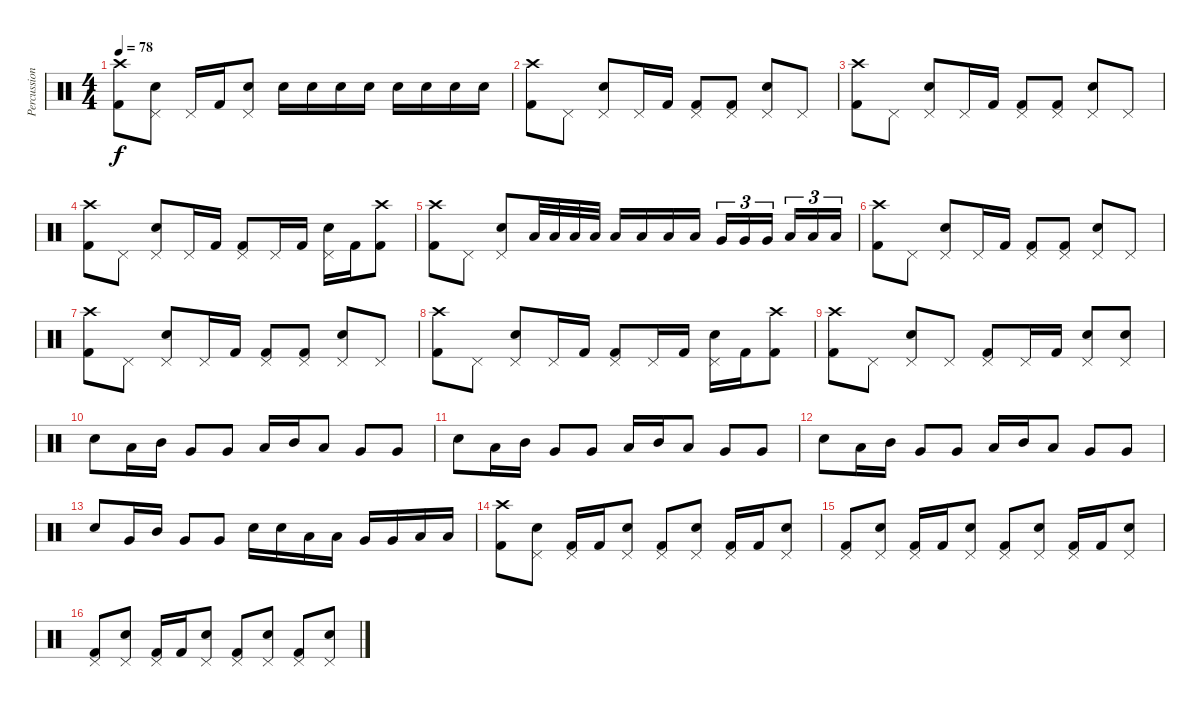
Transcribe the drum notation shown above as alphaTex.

\track ("Percussion" "Percussion") {instrument percussion}
\staff {score}
\articulation defaults
\ts (4 4)
\tempo 78
\clef neutral
\ks c
("Crash high (hit)" "Kick (hit) 2").8{dy f} ("Pedal Hi-Hat (hit)" "Snare (hit) 2").8 "Pedal Hi-Hat (hit)".16 "Kick (hit) 2".16 ("Pedal Hi-Hat (hit)" "Snare (hit) 2").8 "Snare (hit) 2".16 "Snare (hit) 2".16 "Snare (hit) 2".16 "Snare (hit) 2".16 "Snare (hit) 2".16 "Snare (hit) 2".16 "Snare (hit) 2".16 "Snare (hit) 2".16 |
("Crash high (hit)" "Kick (hit) 2").8 "Pedal Hi-Hat (hit)".8 ("Pedal Hi-Hat (hit)" "Snare (hit) 2").8 "Pedal Hi-Hat (hit)".16 "Kick (hit) 2".16 ("Pedal Hi-Hat (hit)" "Kick (hit) 2").8 ("Pedal Hi-Hat (hit)" "Kick (hit) 2").8 ("Pedal Hi-Hat (hit)" "Snare (hit) 2").8 "Pedal Hi-Hat (hit)".8 |
("Crash high (hit)" "Kick (hit) 2").8 "Pedal Hi-Hat (hit)".8 ("Pedal Hi-Hat (hit)" "Snare (hit) 2").8 "Pedal Hi-Hat (hit)".16 "Kick (hit) 2".16 ("Pedal Hi-Hat (hit)" "Kick (hit) 2").8 ("Pedal Hi-Hat (hit)" "Kick (hit) 2").8 ("Pedal Hi-Hat (hit)" "Snare (hit) 2").8 "Pedal Hi-Hat (hit)".8 |
("Crash high (hit)" "Kick (hit) 2").8 "Pedal Hi-Hat (hit)".8 ("Pedal Hi-Hat (hit)" "Snare (hit) 2").8 "Pedal Hi-Hat (hit)".16 "Kick (hit) 2".16 ("Pedal Hi-Hat (hit)" "Kick (hit) 2").8 "Pedal Hi-Hat (hit)".16 "Kick (hit) 2".16 ("Pedal Hi-Hat (hit)" "Snare (hit) 2").16 "Kick (hit) 2".16 ("Crash high (hit)" "Kick (hit) 2").8 |
("Crash high (hit)" "Kick (hit) 2").8 "Pedal Hi-Hat (hit)".8 ("Pedal Hi-Hat (hit)" "Snare (hit) 2").8 "Low Tom (hit)".32 "Low Tom (hit)".32 "Low Tom (hit)".32 "Low Tom (hit)".32 "Low Tom (hit)".16 "Low Tom (hit)".16 "Low Tom (hit)".16 "Low Tom (hit)".16 "Very Low Tom (hit)".16{tu (3 2)} "Very Low Tom (hit)".16{tu (3 2)} "Very Low Tom (hit)".16{tu (3 2)} "Low Floor Tom (hit)".16{tu (3 2)} "Low Floor Tom (hit)".16{tu (3 2)} "Low Floor Tom (hit)".16{tu (3 2)} |
("Crash high (hit)" "Kick (hit) 2").8 "Pedal Hi-Hat (hit)".8 ("Pedal Hi-Hat (hit)" "Snare (hit) 2").8 "Pedal Hi-Hat (hit)".16 "Kick (hit) 2".16 ("Pedal Hi-Hat (hit)" "Kick (hit) 2").8 ("Pedal Hi-Hat (hit)" "Kick (hit) 2").8 ("Pedal Hi-Hat (hit)" "Snare (hit) 2").8 "Pedal Hi-Hat (hit)".8 |
("Crash high (hit)" "Kick (hit) 2").8 "Pedal Hi-Hat (hit)".8 ("Pedal Hi-Hat (hit)" "Snare (hit) 2").8 "Pedal Hi-Hat (hit)".16 "Kick (hit) 2".16 ("Pedal Hi-Hat (hit)" "Kick (hit) 2").8 ("Pedal Hi-Hat (hit)" "Kick (hit) 2").8 ("Pedal Hi-Hat (hit)" "Snare (hit) 2").8 "Pedal Hi-Hat (hit)".8 |
("Crash high (hit)" "Kick (hit) 2").8 "Pedal Hi-Hat (hit)".8 ("Pedal Hi-Hat (hit)" "Snare (hit) 2").8 "Pedal Hi-Hat (hit)".16 "Kick (hit) 2".16 ("Pedal Hi-Hat (hit)" "Kick (hit) 2").8 "Pedal Hi-Hat (hit)".16 "Kick (hit) 2".16 ("Pedal Hi-Hat (hit)" "Snare (hit) 2").16 "Kick (hit) 2".16 ("Crash high (hit)" "Kick (hit) 2").8 |
("Crash high (hit)" "Kick (hit) 2").8 "Pedal Hi-Hat (hit)".8 ("Pedal Hi-Hat (hit)" "Snare (hit) 2").8 "Pedal Hi-Hat (hit)".8 ("Pedal Hi-Hat (hit)" "Kick (hit) 2").8 "Pedal Hi-Hat (hit)".16 "Kick (hit) 2".16 ("Pedal Hi-Hat (hit)" "Snare (hit) 2").8 ("Pedal Hi-Hat (hit)" "Snare (hit) 2").8 |
"Snare (hit) 2".8 "Low Floor Tom (hit)".16 "Mid Tom (hit)".16 "Very Low Tom (hit)".8 "Very Low Tom (hit)".8 "Low Floor Tom (hit)".16 "Mid Tom (hit)".16 "Low Floor Tom (hit)".8 "Very Low Tom (hit)".8 "Very Low Tom (hit)".8 |
"Snare (hit) 2".8 "Low Floor Tom (hit)".16 "Mid Tom (hit)".16 "Very Low Tom (hit)".8 "Very Low Tom (hit)".8 "Low Floor Tom (hit)".16 "Mid Tom (hit)".16 "Low Floor Tom (hit)".8 "Very Low Tom (hit)".8 "Very Low Tom (hit)".8 |
"Snare (hit) 2".8 "Low Floor Tom (hit)".16 "Mid Tom (hit)".16 "Very Low Tom (hit)".8 "Very Low Tom (hit)".8 "Low Floor Tom (hit)".16 "Mid Tom (hit)".16 "Low Floor Tom (hit)".8 "Very Low Tom (hit)".8 "Very Low Tom (hit)".8 |
"Snare (hit) 2".8 "Very Low Tom (hit)".16 "Mid Tom (hit)".16 "Very Low Tom (hit)".8 "Very Low Tom (hit)".8 "Snare (hit) 2".16 "Snare (hit) 2".16 "Low Tom (hit)".16 "Low Tom (hit)".16 "Very Low Tom (hit)".16 "Very Low Tom (hit)".16 "Low Floor Tom (hit)".16 "Low Floor Tom (hit)".16 |
("Crash high (hit)" "Kick (hit) 2").8 ("Pedal Hi-Hat (hit)" "Snare (hit) 2").8 ("Pedal Hi-Hat (hit)" "Kick (hit) 2").16 "Kick (hit) 2".16 ("Pedal Hi-Hat (hit)" "Snare (hit) 2").8 ("Pedal Hi-Hat (hit)" "Kick (hit) 2").8 ("Pedal Hi-Hat (hit)" "Snare (hit) 2").8 ("Pedal Hi-Hat (hit)" "Kick (hit) 2").16 "Kick (hit) 2".16 ("Pedal Hi-Hat (hit)" "Snare (hit) 2").8 |
("Pedal Hi-Hat (hit)" "Kick (hit) 2").8 ("Pedal Hi-Hat (hit)" "Snare (hit) 2").8 ("Pedal Hi-Hat (hit)" "Kick (hit) 2").16 "Kick (hit) 2".16 ("Pedal Hi-Hat (hit)" "Snare (hit) 2").8 ("Pedal Hi-Hat (hit)" "Kick (hit) 2").8 ("Pedal Hi-Hat (hit)" "Snare (hit) 2").8 ("Pedal Hi-Hat (hit)" "Kick (hit) 2").16 "Kick (hit) 2".16 ("Pedal Hi-Hat (hit)" "Snare (hit) 2").8 |
("Pedal Hi-Hat (hit)" "Kick (hit) 2").8 ("Pedal Hi-Hat (hit)" "Snare (hit) 2").8 ("Pedal Hi-Hat (hit)" "Kick (hit) 2").16 "Kick (hit) 2".16 ("Pedal Hi-Hat (hit)" "Snare (hit) 2").8 ("Pedal Hi-Hat (hit)" "Kick (hit) 2").8 ("Pedal Hi-Hat (hit)" "Snare (hit) 2").8 ("Pedal Hi-Hat (hit)" "Kick (hit) 2").8 ("Pedal Hi-Hat (hit)" "Snare (hit) 2").8
